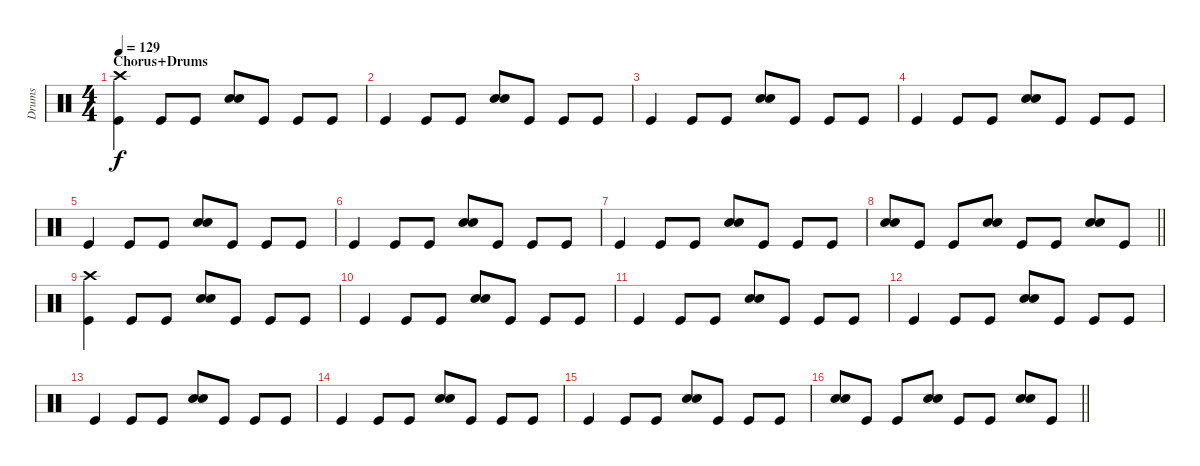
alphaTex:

\track ("Drums" "Drums") {instrument percussion}
\staff {score}
\articulation defaults
\ts (4 4)
\section ("" "Chorus+Drums")
\tempo 129
\clef neutral
\ks c
("Crash high (hit)" "Kick (hit)").4{dy f} "Kick (hit)".8 "Kick (hit)".8 ("Snare (hit) 2" "Electric Snare (hit)").8 "Kick (hit)".8 "Kick (hit)".8 "Kick (hit)".8 |
"Kick (hit)".4 "Kick (hit)".8 "Kick (hit)".8 ("Snare (hit) 2" "Electric Snare (hit)").8 "Kick (hit)".8 "Kick (hit)".8 "Kick (hit)".8 |
"Kick (hit)".4 "Kick (hit)".8 "Kick (hit)".8 ("Snare (hit) 2" "Electric Snare (hit)").8 "Kick (hit)".8 "Kick (hit)".8 "Kick (hit)".8 |
"Kick (hit)".4 "Kick (hit)".8 "Kick (hit)".8 ("Snare (hit) 2" "Electric Snare (hit)").8 "Kick (hit)".8 "Kick (hit)".8 "Kick (hit)".8 |
"Kick (hit)".4 "Kick (hit)".8 "Kick (hit)".8 ("Snare (hit) 2" "Electric Snare (hit)").8 "Kick (hit)".8 "Kick (hit)".8 "Kick (hit)".8 |
"Kick (hit)".4 "Kick (hit)".8 "Kick (hit)".8 ("Snare (hit) 2" "Electric Snare (hit)").8 "Kick (hit)".8 "Kick (hit)".8 "Kick (hit)".8 |
"Kick (hit)".4 "Kick (hit)".8 "Kick (hit)".8 ("Snare (hit) 2" "Electric Snare (hit)").8 "Kick (hit)".8 "Kick (hit)".8 "Kick (hit)".8 |
\barLineRight lightlight
("Snare (hit) 2" "Electric Snare (hit)").8 "Kick (hit)".8 "Kick (hit)".8 ("Snare (hit) 2" "Electric Snare (hit)").8 "Kick (hit)".8 "Kick (hit)".8 ("Snare (hit) 2" "Electric Snare (hit)").8 "Kick (hit)".8 |
("Crash high (hit)" "Kick (hit)").4 "Kick (hit)".8 "Kick (hit)".8 ("Snare (hit) 2" "Electric Snare (hit)").8 "Kick (hit)".8 "Kick (hit)".8 "Kick (hit)".8 |
"Kick (hit)".4 "Kick (hit)".8 "Kick (hit)".8 ("Snare (hit) 2" "Electric Snare (hit)").8 "Kick (hit)".8 "Kick (hit)".8 "Kick (hit)".8 |
"Kick (hit)".4 "Kick (hit)".8 "Kick (hit)".8 ("Snare (hit) 2" "Electric Snare (hit)").8 "Kick (hit)".8 "Kick (hit)".8 "Kick (hit)".8 |
"Kick (hit)".4 "Kick (hit)".8 "Kick (hit)".8 ("Snare (hit) 2" "Electric Snare (hit)").8 "Kick (hit)".8 "Kick (hit)".8 "Kick (hit)".8 |
"Kick (hit)".4 "Kick (hit)".8 "Kick (hit)".8 ("Snare (hit) 2" "Electric Snare (hit)").8 "Kick (hit)".8 "Kick (hit)".8 "Kick (hit)".8 |
"Kick (hit)".4 "Kick (hit)".8 "Kick (hit)".8 ("Snare (hit) 2" "Electric Snare (hit)").8 "Kick (hit)".8 "Kick (hit)".8 "Kick (hit)".8 |
"Kick (hit)".4 "Kick (hit)".8 "Kick (hit)".8 ("Snare (hit) 2" "Electric Snare (hit)").8 "Kick (hit)".8 "Kick (hit)".8 "Kick (hit)".8 |
\barLineRight lightlight
("Snare (hit) 2" "Electric Snare (hit)").8 "Kick (hit)".8 "Kick (hit)".8 ("Snare (hit) 2" "Electric Snare (hit)").8 "Kick (hit)".8 "Kick (hit)".8 ("Snare (hit) 2" "Electric Snare (hit)").8 "Kick (hit)".8
